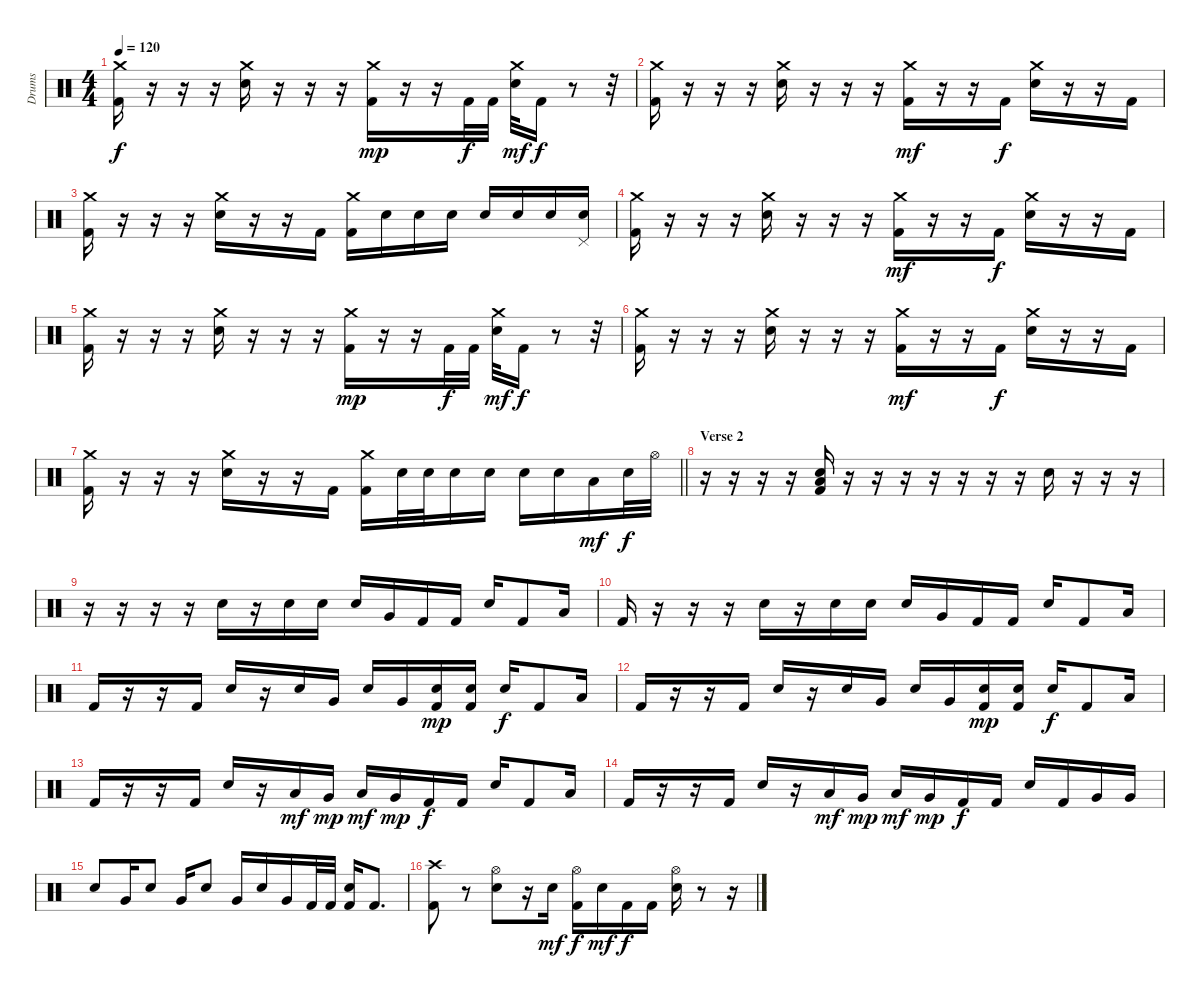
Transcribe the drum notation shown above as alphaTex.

\track ("Drums" "Drums") {instrument percussion}
\staff {score}
\articulation defaults
\ts (4 4)
\tempo 120
\clef neutral
\ks c
("Crash medium (hit)" "Kick (hit) 2").16{dy f} r.16 r.16 r.16 ("Crash medium (hit)" "Electric Snare (hit)").16 r.16 r.16 r.16 ("Crash medium (hit)" "Kick (hit) 2").16{dy mp} r.16 r.16 "Kick (hit) 2".32{dy f} "Kick (hit) 2".32 ("Crash medium (hit)" "Electric Snare (hit)").32{dy mf} "Kick (hit) 2".16{dy f} r.8 r.32 |
("Crash medium (hit)" "Kick (hit) 2").16 r.16 r.16 r.16 ("Crash medium (hit)" "Electric Snare (hit)").16 r.16 r.16 r.16 ("Crash medium (hit)" "Kick (hit) 2").16{dy mf} r.16 r.16 "Kick (hit) 2".16{dy f} ("Crash medium (hit)" "Electric Snare (hit)").16 r.16 r.16 "Kick (hit) 2".16 |
("Crash medium (hit)" "Kick (hit) 2").16 r.16 r.16 r.16 ("Crash medium (hit)" "Electric Snare (hit)").16 r.16 r.16 "Kick (hit) 2".16 ("Crash medium (hit)" "Kick (hit) 2").16 "Electric Snare (hit)".16 "Electric Snare (hit)".16 "Electric Snare (hit)".16 "Electric Snare (hit)".16 "Electric Snare (hit)".16 "Electric Snare (hit)".16 ("Pedal Hi-Hat (hit)" "Electric Snare (hit)").16 |
("Crash medium (hit)" "Kick (hit) 2").16 r.16 r.16 r.16 ("Crash medium (hit)" "Electric Snare (hit)").16 r.16 r.16 r.16 ("Crash medium (hit)" "Kick (hit) 2").16{dy mf} r.16 r.16 "Kick (hit) 2".16{dy f} ("Crash medium (hit)" "Electric Snare (hit)").16 r.16 r.16 "Kick (hit) 2".16 |
("Crash medium (hit)" "Kick (hit) 2").16 r.16 r.16 r.16 ("Crash medium (hit)" "Electric Snare (hit)").16 r.16 r.16 r.16 ("Crash medium (hit)" "Kick (hit) 2").16{dy mp} r.16 r.16 "Kick (hit) 2".32{dy f} "Kick (hit) 2".32 ("Crash medium (hit)" "Electric Snare (hit)").32{dy mf} "Kick (hit) 2".16{dy f} r.8 r.32 |
("Crash medium (hit)" "Kick (hit) 2").16 r.16 r.16 r.16 ("Crash medium (hit)" "Electric Snare (hit)").16 r.16 r.16 r.16 ("Crash medium (hit)" "Kick (hit) 2").16{dy mf} r.16 r.16 "Kick (hit) 2".16{dy f} ("Crash medium (hit)" "Electric Snare (hit)").16 r.16 r.16 "Kick (hit) 2".16 |
\barLineRight lightlight
("Crash medium (hit)" "Kick (hit) 2").16 r.16 r.16 r.16 ("Crash medium (hit)" "Electric Snare (hit)").16 r.16 r.16 "Kick (hit) 2".16 ("Crash medium (hit)" "Kick (hit) 2").16 "Electric Snare (hit)".32 "Electric Snare (hit)".32 "Electric Snare (hit)".16 "Electric Snare (hit)".16 "Electric Snare (hit)".16 "Electric Snare (hit)".16 "Low Floor Tom (hit)".16{dy mf} "Electric Snare (hit)".32{dy f} "Hi-Hat (open)".32 |
\section ("" "Verse 2")
r.16 r.16 r.16 r.16 ("Low Floor Tom (hit)" "Kick (hit) 2" "Electric Snare (hit)").16 r.16 r.16 r.16 r.16 r.16 r.16 r.16 "Electric Snare (hit)".16 r.16 r.16 r.16 |
r.16 r.16 r.16 r.16 "Electric Snare (hit)".16 r.16 "Electric Snare (hit)".16 "Electric Snare (hit)".16 "Electric Snare (hit)".16 "Very Low Tom (hit)".16 "Kick (hit) 2".16 "Kick (hit) 2".16 "Electric Snare (hit)".16 "Kick (hit) 2".8 "Low Floor Tom (hit)".16 |
"Kick (hit) 2".16 r.16 r.16 r.16 "Electric Snare (hit)".16 r.16 "Electric Snare (hit)".16 "Electric Snare (hit)".16 "Electric Snare (hit)".16 "Very Low Tom (hit)".16 "Kick (hit) 2".16 "Kick (hit) 2".16 "Electric Snare (hit)".16 "Kick (hit) 2".8 "Low Floor Tom (hit)".16 |
"Kick (hit) 2".16 r.16 r.16 "Kick (hit) 2".16 "Electric Snare (hit)".16 r.16 "Electric Snare (hit)".16 "Very Low Tom (hit)".16 "Electric Snare (hit)".16 "Very Low Tom (hit)".16 ("Electric Snare (hit)" "Kick (hit) 2").16{dy mp} ("Electric Snare (hit)" "Kick (hit) 2").16 "Electric Snare (hit)".16{dy f} "Kick (hit) 2".8 "Low Floor Tom (hit)".16 |
"Kick (hit) 2".16 r.16 r.16 "Kick (hit) 2".16 "Electric Snare (hit)".16 r.16 "Electric Snare (hit)".16 "Very Low Tom (hit)".16 "Electric Snare (hit)".16 "Very Low Tom (hit)".16 ("Electric Snare (hit)" "Kick (hit) 2").16{dy mp} ("Electric Snare (hit)" "Kick (hit) 2").16 "Electric Snare (hit)".16{dy f} "Kick (hit) 2".8 "Low Floor Tom (hit)".16 |
"Kick (hit) 2".16 r.16 r.16 "Kick (hit) 2".16 "Electric Snare (hit)".16 r.16 "Low Tom (hit)".16{dy mf} "Very Low Tom (hit)".16{dy mp} "Low Tom (hit)".16{dy mf} "Very Low Tom (hit)".16{dy mp} "Kick (hit) 2".16{dy f} "Kick (hit) 2".16 "Electric Snare (hit)".16 "Kick (hit) 2".8 "Low Floor Tom (hit)".16 |
"Kick (hit) 2".16 r.16 r.16 "Kick (hit) 2".16 "Electric Snare (hit)".16 r.16 "Low Tom (hit)".16{dy mf} "Very Low Tom (hit)".16{dy mp} "Low Tom (hit)".16{dy mf} "Very Low Tom (hit)".16{dy mp} "Kick (hit) 2".16{dy f} "Kick (hit) 2".16 "Electric Snare (hit)".16 "Kick (hit) 2".16 "Very Low Tom (hit)".16 "Very Low Tom (hit)".16 |
"Electric Snare (hit)".8 "Very Low Tom (hit)".16 "Electric Snare (hit)".8 "Very Low Tom (hit)".16 "Electric Snare (hit)".8 "Very Low Tom (hit)".16 "Electric Snare (hit)".16 "Very Low Tom (hit)".16 "Kick (hit) 2".32 "Kick (hit) 2".32 ("Kick (hit) 2" "Electric Snare (hit)").16 "Kick (hit) 2".8{d} |
("Crash high (hit)" "Kick (hit) 2").8 r.8 ("Hi-Hat (open)" "Electric Snare (hit)").8 r.16 "Electric Snare (hit)".16{dy mf} ("Hi-Hat (open)" "Kick (hit) 2").16{dy f} "Electric Snare (hit)".16{dy mf} "Kick (hit) 2".16{dy f} "Kick (hit) 2".16 ("Hi-Hat (open)" "Electric Snare (hit)").16 r.8 r.16
